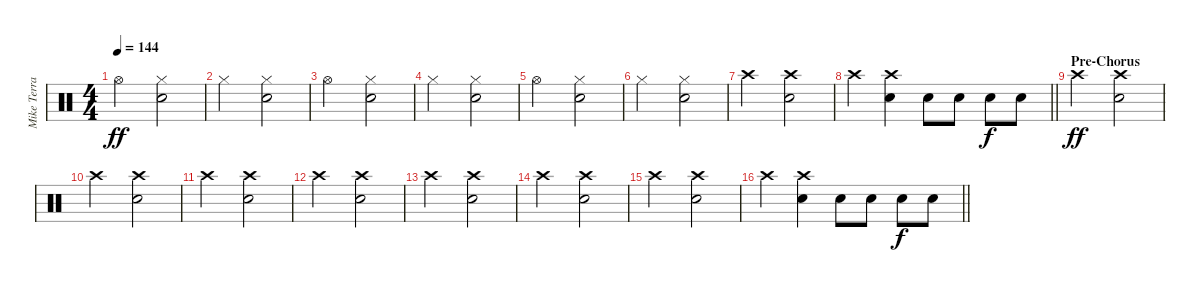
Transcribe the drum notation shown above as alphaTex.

\track ("Mike Terrana" "Mike Terra") {instrument percussion}
\staff {score}
\articulation defaults
\ts (4 4)
\tempo 144
\clef neutral
\ks c "Hi-Hat (open)".2{dy ff}
("Snare (hit) 2" "Hi-Hat (closed)").2 |
"Hi-Hat (closed)".2 ("Snare (hit) 2" "Hi-Hat (closed)").2 |
"Hi-Hat (open)".2 ("Snare (hit) 2" "Hi-Hat (closed)").2 |
"Hi-Hat (closed)".2 ("Snare (hit) 2" "Hi-Hat (closed)").2 |
"Hi-Hat (open)".2 ("Snare (hit) 2" "Hi-Hat (closed)").2 |
"Hi-Hat (closed)".2 ("Snare (hit) 2" "Hi-Hat (closed)").2 |
"Crash high (hit)".2 ("Snare (hit) 2" "Crash high (hit)").2 |
\barLineRight lightlight "Crash high (hit)".4
("Snare (hit) 2" "Crash high (hit)").4 "Snare (hit) 2".8 "Snare (hit) 2".8 "Snare (hit) 2".8{dy f} "Snare (hit) 2".8 |
\section ("" "Pre-Chorus")
"Crash high (hit)".2{dy ff} ("Snare (hit) 2" "Crash high (hit)").2 |
"Crash high (hit)".2 ("Snare (hit) 2" "Crash high (hit)").2 |
"Crash high (hit)".2 ("Snare (hit) 2" "Crash high (hit)").2 |
"Crash high (hit)".2 ("Snare (hit) 2" "Crash high (hit)").2 |
"Crash high (hit)".2 ("Snare (hit) 2" "Crash high (hit)").2 |
"Crash high (hit)".2 ("Snare (hit) 2" "Crash high (hit)").2 |
"Crash high (hit)".2 ("Snare (hit) 2" "Crash high (hit)").2 |
\barLineRight lightlight "Crash high (hit)".4
("Snare (hit) 2" "Crash high (hit)").4 "Snare (hit) 2".8 "Snare (hit) 2".8 "Snare (hit) 2".8{dy f} "Snare (hit) 2".8
